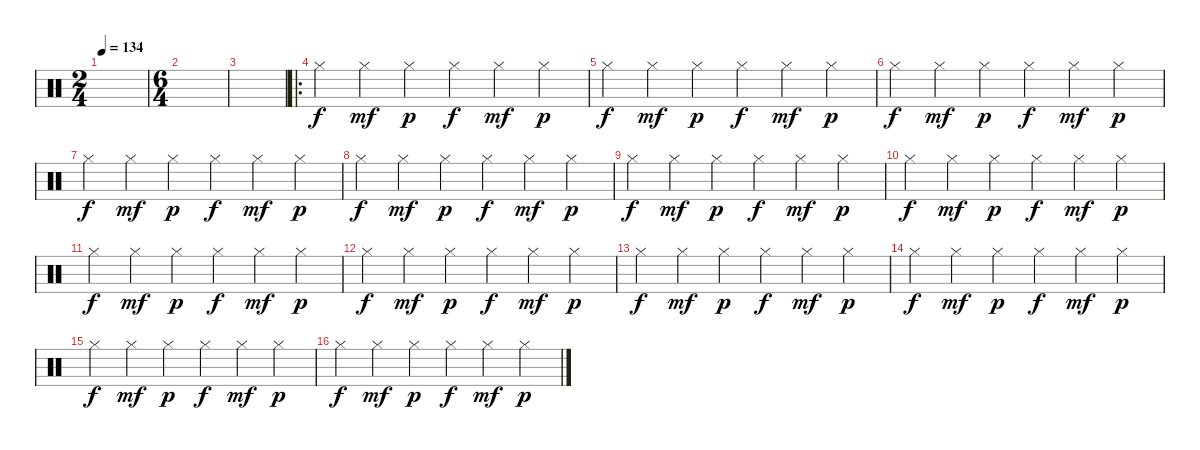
\track "" {instrument percussion}
\staff {score}
\articulation defaults
\ts (2 4)
\tempo 134
\clef neutral
\ks c
|
\ts (6 4)
|
|
\ro "Hi-Hat (closed)".4 "Hi-Hat (closed)".4{dy mf} "Hi-Hat (closed)".4{dy p} "Hi-Hat (closed)".4{dy f} "Hi-Hat (closed)".4{dy mf} "Hi-Hat (closed)".4{dy p}
|
"Hi-Hat (closed)".4{dy f} "Hi-Hat (closed)".4{dy mf} "Hi-Hat (closed)".4{dy p} "Hi-Hat (closed)".4{dy f} "Hi-Hat (closed)".4{dy mf} "Hi-Hat (closed)".4{dy p} |
"Hi-Hat (closed)".4{dy f} "Hi-Hat (closed)".4{dy mf} "Hi-Hat (closed)".4{dy p} "Hi-Hat (closed)".4{dy f} "Hi-Hat (closed)".4{dy mf} "Hi-Hat (closed)".4{dy p} |
"Hi-Hat (closed)".4{dy f} "Hi-Hat (closed)".4{dy mf} "Hi-Hat (closed)".4{dy p} "Hi-Hat (closed)".4{dy f} "Hi-Hat (closed)".4{dy mf} "Hi-Hat (closed)".4{dy p} |
"Hi-Hat (closed)".4{dy f} "Hi-Hat (closed)".4{dy mf} "Hi-Hat (closed)".4{dy p} "Hi-Hat (closed)".4{dy f} "Hi-Hat (closed)".4{dy mf} "Hi-Hat (closed)".4{dy p} |
"Hi-Hat (closed)".4{dy f} "Hi-Hat (closed)".4{dy mf} "Hi-Hat (closed)".4{dy p} "Hi-Hat (closed)".4{dy f} "Hi-Hat (closed)".4{dy mf} "Hi-Hat (closed)".4{dy p} |
"Hi-Hat (closed)".4{dy f} "Hi-Hat (closed)".4{dy mf} "Hi-Hat (closed)".4{dy p} "Hi-Hat (closed)".4{dy f} "Hi-Hat (closed)".4{dy mf} "Hi-Hat (closed)".4{dy p} |
"Hi-Hat (closed)".4{dy f} "Hi-Hat (closed)".4{dy mf} "Hi-Hat (closed)".4{dy p} "Hi-Hat (closed)".4{dy f} "Hi-Hat (closed)".4{dy mf} "Hi-Hat (closed)".4{dy p} |
"Hi-Hat (closed)".4{dy f} "Hi-Hat (closed)".4{dy mf} "Hi-Hat (closed)".4{dy p} "Hi-Hat (closed)".4{dy f} "Hi-Hat (closed)".4{dy mf} "Hi-Hat (closed)".4{dy p} |
"Hi-Hat (closed)".4{dy f} "Hi-Hat (closed)".4{dy mf} "Hi-Hat (closed)".4{dy p} "Hi-Hat (closed)".4{dy f} "Hi-Hat (closed)".4{dy mf} "Hi-Hat (closed)".4{dy p} |
"Hi-Hat (closed)".4{dy f} "Hi-Hat (closed)".4{dy mf} "Hi-Hat (closed)".4{dy p} "Hi-Hat (closed)".4{dy f} "Hi-Hat (closed)".4{dy mf} "Hi-Hat (closed)".4{dy p} |
"Hi-Hat (closed)".4{dy f} "Hi-Hat (closed)".4{dy mf} "Hi-Hat (closed)".4{dy p} "Hi-Hat (closed)".4{dy f} "Hi-Hat (closed)".4{dy mf} "Hi-Hat (closed)".4{dy p} |
"Hi-Hat (closed)".4{dy f} "Hi-Hat (closed)".4{dy mf} "Hi-Hat (closed)".4{dy p} "Hi-Hat (closed)".4{dy f} "Hi-Hat (closed)".4{dy mf} "Hi-Hat (closed)".4{dy p}
